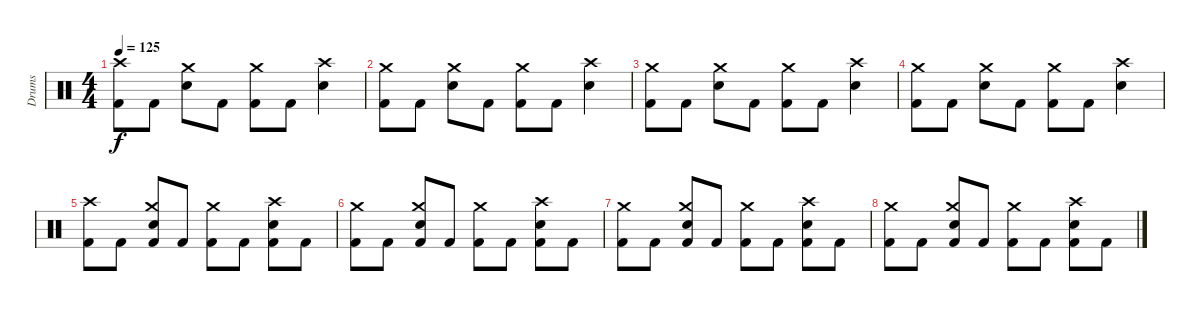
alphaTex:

\track ("Drums" "Drums") {instrument percussion}
\staff {score}
\articulation defaults
\ts (4 4)
\tempo 125
\clef neutral
\ks c
("Crash high (hit)" "Kick (hit) 2").8{dy f} "Kick (hit) 2".8 ("Crash medium (hit)" "Snare (hit) 2").8 "Kick (hit) 2".8 ("Crash medium (hit)" "Kick (hit) 2").8 "Kick (hit) 2".8 ("Crash high (hit)" "Snare (hit) 2").4 |
("Crash medium (hit)" "Kick (hit) 2").8 "Kick (hit) 2".8 ("Crash medium (hit)" "Snare (hit) 2").8 "Kick (hit) 2".8 ("Crash medium (hit)" "Kick (hit) 2").8 "Kick (hit) 2".8 ("Crash high (hit)" "Snare (hit) 2").4 |
("Crash medium (hit)" "Kick (hit) 2").8 "Kick (hit) 2".8 ("Crash medium (hit)" "Snare (hit) 2").8 "Kick (hit) 2".8 ("Crash medium (hit)" "Kick (hit) 2").8 "Kick (hit) 2".8 ("Crash high (hit)" "Snare (hit) 2").4 |
("Crash medium (hit)" "Kick (hit) 2").8 "Kick (hit) 2".8 ("Crash medium (hit)" "Snare (hit) 2").8 "Kick (hit) 2".8 ("Crash medium (hit)" "Kick (hit) 2").8 "Kick (hit) 2".8 ("Crash high (hit)" "Snare (hit) 2").4 |
("Crash high (hit)" "Kick (hit) 2").8 "Kick (hit) 2".8 ("Crash medium (hit)" "Snare (hit) 2" "Kick (hit) 2").8 "Kick (hit) 2".8 ("Crash medium (hit)" "Kick (hit) 2").8 "Kick (hit) 2".8 ("Crash high (hit)" "Snare (hit) 2" "Kick (hit) 2").8 "Kick (hit) 2".8 |
("Crash medium (hit)" "Kick (hit) 2").8 "Kick (hit) 2".8 ("Crash medium (hit)" "Snare (hit) 2" "Kick (hit) 2").8 "Kick (hit) 2".8 ("Crash medium (hit)" "Kick (hit) 2").8 "Kick (hit) 2".8 ("Crash high (hit)" "Snare (hit) 2" "Kick (hit) 2").8 "Kick (hit) 2".8 |
("Crash medium (hit)" "Kick (hit) 2").8 "Kick (hit) 2".8 ("Crash medium (hit)" "Snare (hit) 2" "Kick (hit) 2").8 "Kick (hit) 2".8 ("Crash medium (hit)" "Kick (hit) 2").8 "Kick (hit) 2".8 ("Crash high (hit)" "Snare (hit) 2" "Kick (hit) 2").8 "Kick (hit) 2".8 |
("Crash medium (hit)" "Kick (hit) 2").8 "Kick (hit) 2".8 ("Crash medium (hit)" "Snare (hit) 2" "Kick (hit) 2").8 "Kick (hit) 2".8 ("Crash medium (hit)" "Kick (hit) 2").8 "Kick (hit) 2".8 ("Crash high (hit)" "Snare (hit) 2" "Kick (hit) 2").8 "Kick (hit) 2".8
